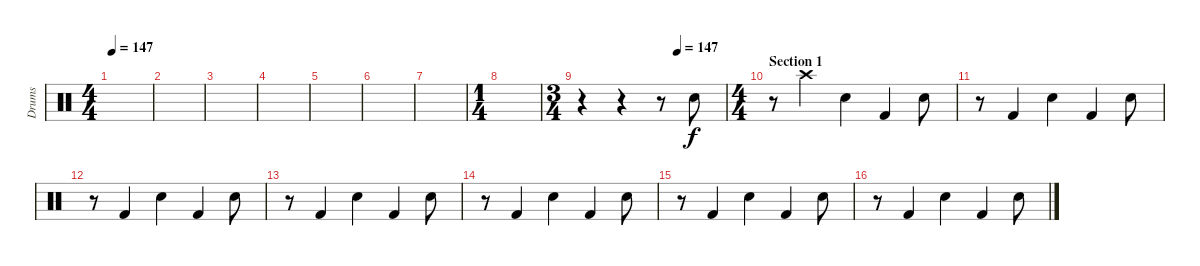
\track ("Drums" "Drums") {instrument percussion}
\staff {score}
\articulation defaults
\ts (4 4)
\tempo 147
\tempo 73
\tempo 147
\clef neutral
\ks c
|
|
|
|
|
|
|
\ts (1 4)
|
\ts (3 4)
\tempo (147 0.6666666666666666)
r.4 r.4 r.8 "Snare (hit) 2".8 |
\ts (4 4)
\section ("" "Section 1")
r.8 "Crash high (hit)".4 "Snare (hit) 2".4 "Kick (hit) 2".4 "Snare (hit) 2".8 |
r.8 "Kick (hit) 2".4 "Snare (hit) 2".4 "Kick (hit) 2".4 "Snare (hit) 2".8 |
r.8 "Kick (hit) 2".4 "Snare (hit) 2".4 "Kick (hit) 2".4 "Snare (hit) 2".8 |
r.8 "Kick (hit) 2".4 "Snare (hit) 2".4 "Kick (hit) 2".4 "Snare (hit) 2".8 |
r.8 "Kick (hit) 2".4 "Snare (hit) 2".4 "Kick (hit) 2".4 "Snare (hit) 2".8 |
r.8 "Kick (hit) 2".4 "Snare (hit) 2".4 "Kick (hit) 2".4 "Snare (hit) 2".8 |
r.8 "Kick (hit) 2".4 "Snare (hit) 2".4 "Kick (hit) 2".4 "Snare (hit) 2".8
